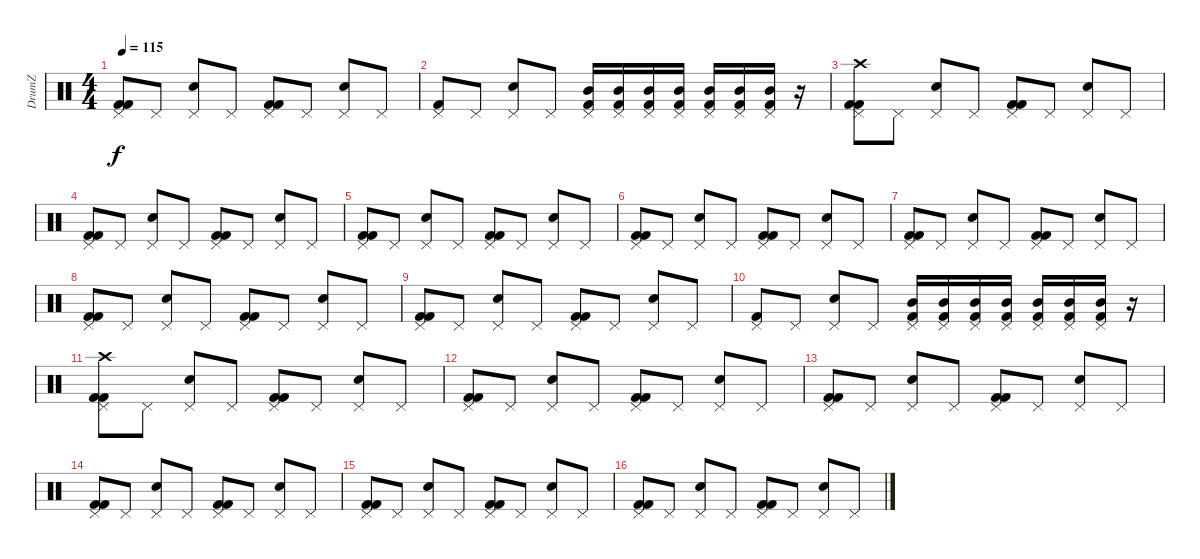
\track ("DrumZ" "DrumZ") {instrument percussion}
\staff {score}
\articulation defaults
\ts (4 4)
\tempo 115
\clef neutral
\ks c
("Pedal Hi-Hat (hit)" "Kick (hit) 2" "Kick (hit) 2").8{dy f} "Pedal Hi-Hat (hit)".8 ("Pedal Hi-Hat (hit)" "Electric Snare (hit)").8 "Pedal Hi-Hat (hit)".8 ("Pedal Hi-Hat (hit)" "Kick (hit) 2" "Kick (hit) 2").8 "Pedal Hi-Hat (hit)".8 ("Pedal Hi-Hat (hit)" "Electric Snare (hit)").8 "Pedal Hi-Hat (hit)".8 |
("Pedal Hi-Hat (hit)" "Kick (hit) 2").8 "Pedal Hi-Hat (hit)".8 ("Pedal Hi-Hat (hit)" "Electric Snare (hit)").8 "Pedal Hi-Hat (hit)".8 ("Pedal Hi-Hat (hit)" "Kick (hit) 2" "Mid Tom (hit)").16 ("Pedal Hi-Hat (hit)" "Kick (hit) 2" "Mid Tom (hit)").16 ("Pedal Hi-Hat (hit)" "Kick (hit) 2" "Mid Tom (hit)").16 ("Pedal Hi-Hat (hit)" "Kick (hit) 2" "Mid Tom (hit)").16 ("Pedal Hi-Hat (hit)" "Kick (hit) 2" "Mid Tom (hit)").16 ("Pedal Hi-Hat (hit)" "Kick (hit) 2" "Mid Tom (hit)").16 ("Pedal Hi-Hat (hit)" "Kick (hit) 2" "Mid Tom (hit)").16 r.16 |
("Pedal Hi-Hat (hit)" "Crash high (hit)" "Kick (hit) 2" "Kick (hit) 2").8 "Pedal Hi-Hat (hit)".8 ("Pedal Hi-Hat (hit)" "Electric Snare (hit)").8 "Pedal Hi-Hat (hit)".8 ("Pedal Hi-Hat (hit)" "Kick (hit) 2" "Kick (hit) 2").8 "Pedal Hi-Hat (hit)".8 ("Pedal Hi-Hat (hit)" "Electric Snare (hit)").8 "Pedal Hi-Hat (hit)".8 |
("Pedal Hi-Hat (hit)" "Kick (hit) 2" "Kick (hit) 2").8 "Pedal Hi-Hat (hit)".8 ("Pedal Hi-Hat (hit)" "Electric Snare (hit)").8 "Pedal Hi-Hat (hit)".8 ("Pedal Hi-Hat (hit)" "Kick (hit) 2" "Kick (hit) 2").8 "Pedal Hi-Hat (hit)".8 ("Pedal Hi-Hat (hit)" "Electric Snare (hit)").8 "Pedal Hi-Hat (hit)".8 |
("Pedal Hi-Hat (hit)" "Kick (hit) 2" "Kick (hit) 2").8 "Pedal Hi-Hat (hit)".8 ("Pedal Hi-Hat (hit)" "Electric Snare (hit)").8 "Pedal Hi-Hat (hit)".8 ("Pedal Hi-Hat (hit)" "Kick (hit) 2" "Kick (hit) 2").8 "Pedal Hi-Hat (hit)".8 ("Pedal Hi-Hat (hit)" "Electric Snare (hit)").8 "Pedal Hi-Hat (hit)".8 |
("Pedal Hi-Hat (hit)" "Kick (hit) 2" "Kick (hit) 2").8 "Pedal Hi-Hat (hit)".8 ("Pedal Hi-Hat (hit)" "Electric Snare (hit)").8 "Pedal Hi-Hat (hit)".8 ("Pedal Hi-Hat (hit)" "Kick (hit) 2" "Kick (hit) 2").8 "Pedal Hi-Hat (hit)".8 ("Pedal Hi-Hat (hit)" "Electric Snare (hit)").8 "Pedal Hi-Hat (hit)".8 |
("Pedal Hi-Hat (hit)" "Kick (hit) 2" "Kick (hit) 2").8 "Pedal Hi-Hat (hit)".8 ("Pedal Hi-Hat (hit)" "Electric Snare (hit)").8 "Pedal Hi-Hat (hit)".8 ("Pedal Hi-Hat (hit)" "Kick (hit) 2" "Kick (hit) 2").8 "Pedal Hi-Hat (hit)".8 ("Pedal Hi-Hat (hit)" "Electric Snare (hit)").8 "Pedal Hi-Hat (hit)".8 |
("Pedal Hi-Hat (hit)" "Kick (hit) 2" "Kick (hit) 2").8 "Pedal Hi-Hat (hit)".8 ("Pedal Hi-Hat (hit)" "Electric Snare (hit)").8 "Pedal Hi-Hat (hit)".8 ("Pedal Hi-Hat (hit)" "Kick (hit) 2" "Kick (hit) 2").8 "Pedal Hi-Hat (hit)".8 ("Pedal Hi-Hat (hit)" "Electric Snare (hit)").8 "Pedal Hi-Hat (hit)".8 |
("Pedal Hi-Hat (hit)" "Kick (hit) 2" "Kick (hit) 2").8 "Pedal Hi-Hat (hit)".8 ("Pedal Hi-Hat (hit)" "Electric Snare (hit)").8 "Pedal Hi-Hat (hit)".8 ("Pedal Hi-Hat (hit)" "Kick (hit) 2" "Kick (hit) 2").8 "Pedal Hi-Hat (hit)".8 ("Pedal Hi-Hat (hit)" "Electric Snare (hit)").8 "Pedal Hi-Hat (hit)".8 |
("Pedal Hi-Hat (hit)" "Kick (hit) 2").8 "Pedal Hi-Hat (hit)".8 ("Pedal Hi-Hat (hit)" "Electric Snare (hit)").8 "Pedal Hi-Hat (hit)".8 ("Pedal Hi-Hat (hit)" "Kick (hit) 2" "Mid Tom (hit)").16 ("Pedal Hi-Hat (hit)" "Kick (hit) 2" "Mid Tom (hit)").16 ("Pedal Hi-Hat (hit)" "Kick (hit) 2" "Mid Tom (hit)").16 ("Pedal Hi-Hat (hit)" "Kick (hit) 2" "Mid Tom (hit)").16 ("Pedal Hi-Hat (hit)" "Kick (hit) 2" "Mid Tom (hit)").16 ("Pedal Hi-Hat (hit)" "Kick (hit) 2" "Mid Tom (hit)").16 ("Pedal Hi-Hat (hit)" "Kick (hit) 2" "Mid Tom (hit)").16 r.16 |
("Pedal Hi-Hat (hit)" "Crash high (hit)" "Kick (hit) 2" "Kick (hit) 2").8 "Pedal Hi-Hat (hit)".8 ("Pedal Hi-Hat (hit)" "Electric Snare (hit)").8 "Pedal Hi-Hat (hit)".8 ("Pedal Hi-Hat (hit)" "Kick (hit) 2" "Kick (hit) 2").8 "Pedal Hi-Hat (hit)".8 ("Pedal Hi-Hat (hit)" "Electric Snare (hit)").8 "Pedal Hi-Hat (hit)".8 |
("Pedal Hi-Hat (hit)" "Kick (hit) 2" "Kick (hit) 2").8 "Pedal Hi-Hat (hit)".8 ("Pedal Hi-Hat (hit)" "Electric Snare (hit)").8 "Pedal Hi-Hat (hit)".8 ("Pedal Hi-Hat (hit)" "Kick (hit) 2" "Kick (hit) 2").8 "Pedal Hi-Hat (hit)".8 ("Pedal Hi-Hat (hit)" "Electric Snare (hit)").8 "Pedal Hi-Hat (hit)".8 |
("Pedal Hi-Hat (hit)" "Kick (hit) 2" "Kick (hit) 2").8 "Pedal Hi-Hat (hit)".8 ("Pedal Hi-Hat (hit)" "Electric Snare (hit)").8 "Pedal Hi-Hat (hit)".8 ("Pedal Hi-Hat (hit)" "Kick (hit) 2" "Kick (hit) 2").8 "Pedal Hi-Hat (hit)".8 ("Pedal Hi-Hat (hit)" "Electric Snare (hit)").8 "Pedal Hi-Hat (hit)".8 |
("Pedal Hi-Hat (hit)" "Kick (hit) 2" "Kick (hit) 2").8 "Pedal Hi-Hat (hit)".8 ("Pedal Hi-Hat (hit)" "Electric Snare (hit)").8 "Pedal Hi-Hat (hit)".8 ("Pedal Hi-Hat (hit)" "Kick (hit) 2" "Kick (hit) 2").8 "Pedal Hi-Hat (hit)".8 ("Pedal Hi-Hat (hit)" "Electric Snare (hit)").8 "Pedal Hi-Hat (hit)".8 |
("Pedal Hi-Hat (hit)" "Kick (hit) 2" "Kick (hit) 2").8 "Pedal Hi-Hat (hit)".8 ("Pedal Hi-Hat (hit)" "Electric Snare (hit)").8 "Pedal Hi-Hat (hit)".8 ("Pedal Hi-Hat (hit)" "Kick (hit) 2" "Kick (hit) 2").8 "Pedal Hi-Hat (hit)".8 ("Pedal Hi-Hat (hit)" "Electric Snare (hit)").8 "Pedal Hi-Hat (hit)".8 |
("Pedal Hi-Hat (hit)" "Kick (hit) 2" "Kick (hit) 2").8 "Pedal Hi-Hat (hit)".8 ("Pedal Hi-Hat (hit)" "Electric Snare (hit)").8 "Pedal Hi-Hat (hit)".8 ("Pedal Hi-Hat (hit)" "Kick (hit) 2" "Kick (hit) 2").8 "Pedal Hi-Hat (hit)".8 ("Pedal Hi-Hat (hit)" "Electric Snare (hit)").8 "Pedal Hi-Hat (hit)".8
